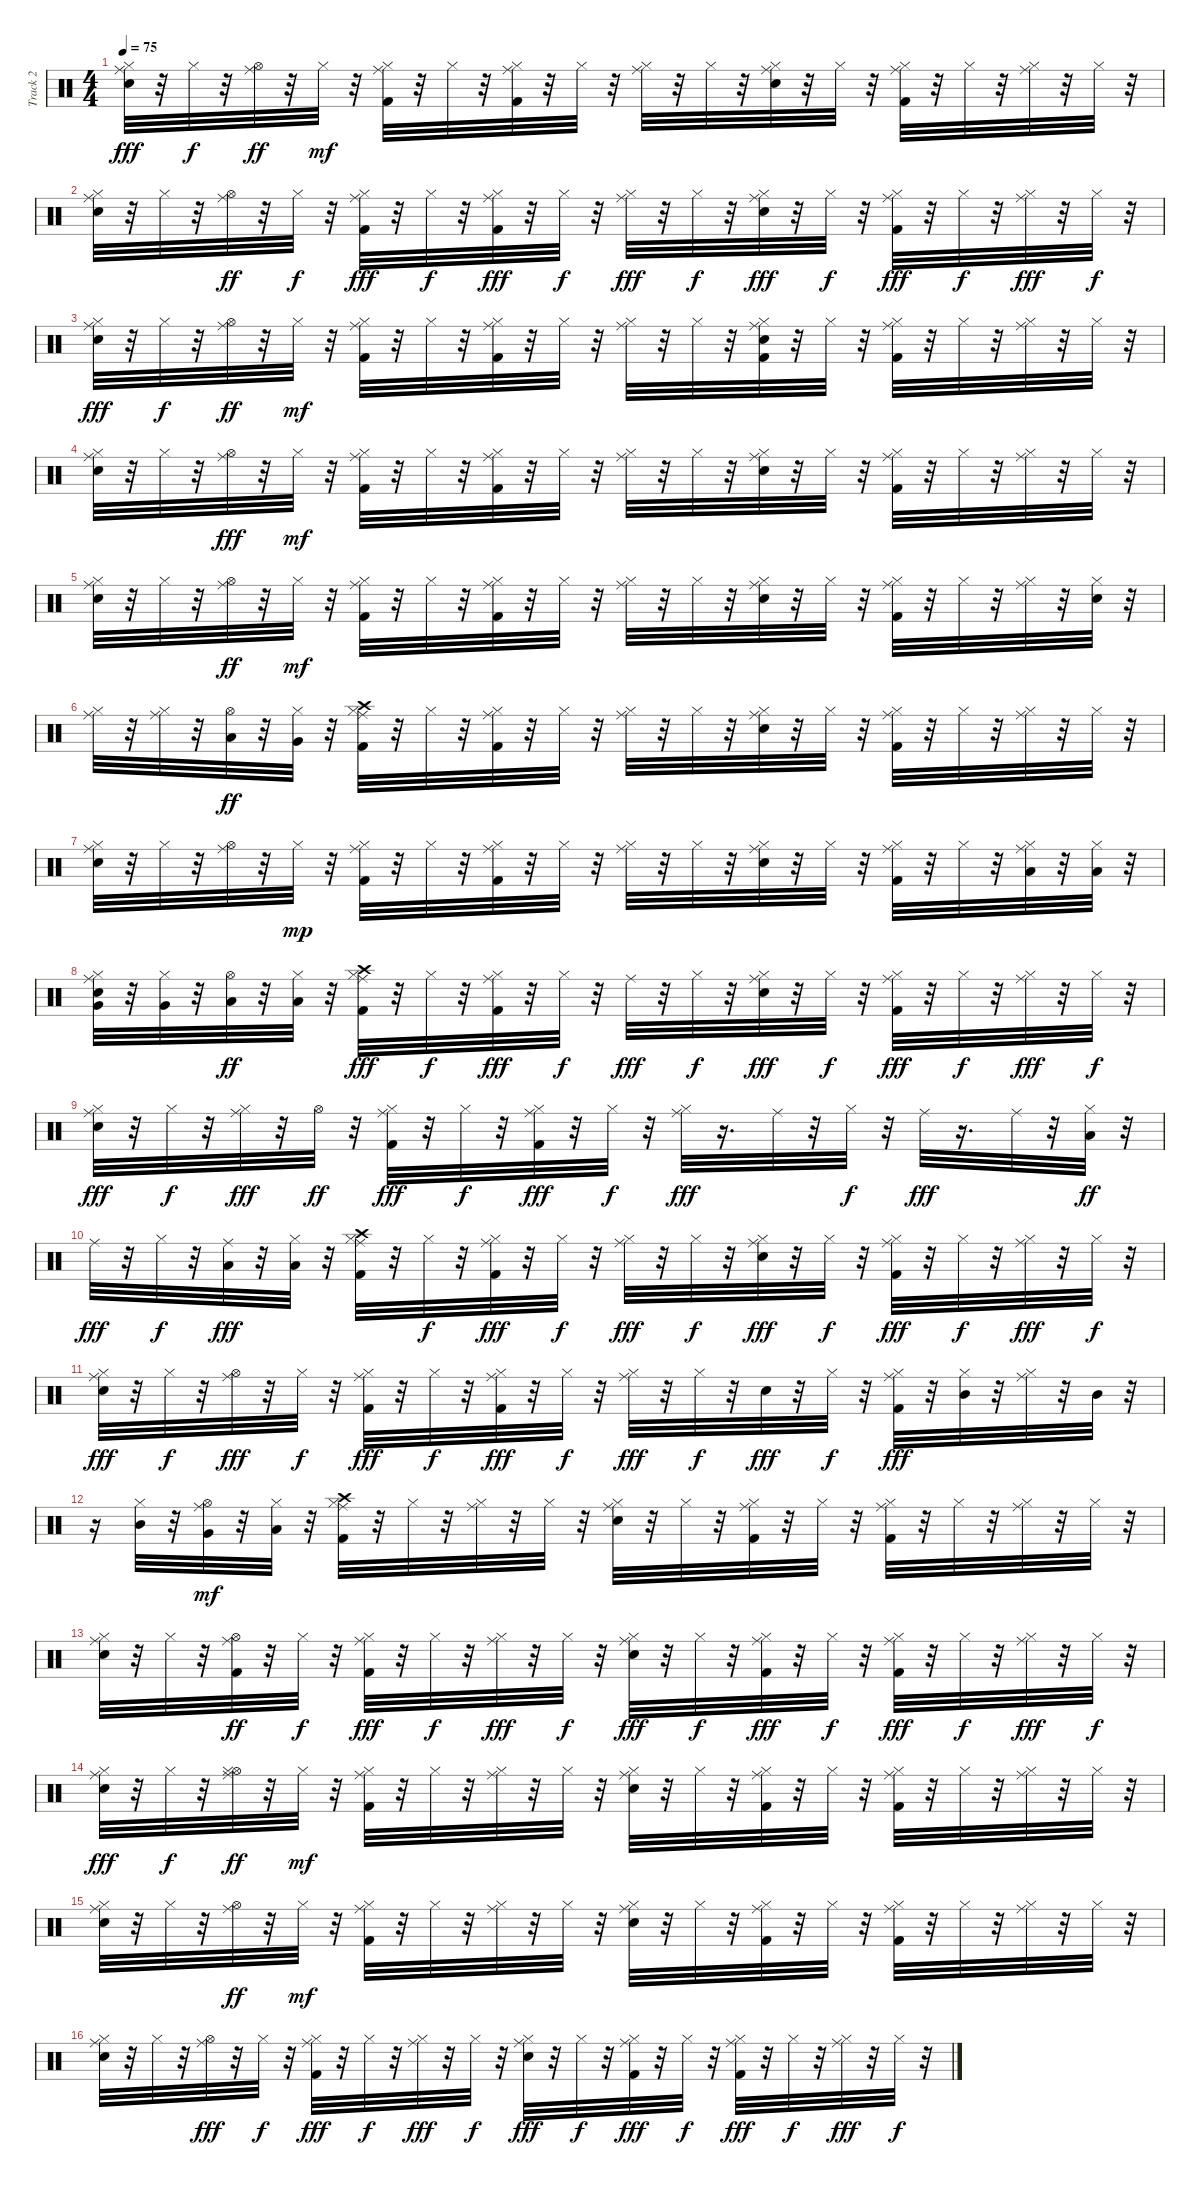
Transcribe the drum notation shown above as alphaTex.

\track ("Track 2" "Track 2") {instrument percussion}
\staff {score}
\articulation defaults
\ts (4 4)
\tempo 75
\clef neutral
\ks c
("Snare (hit) 2" "Ride (middle)" "Hi-Hat (closed)").32{dy fff} r.32 "Hi-Hat (closed)".32{dy f} r.32 ("Ride (middle)" "Hi-Hat (open)").32{dy ff} r.32 "Hi-Hat (closed)".32{dy mf} r.32 ("Kick (hit) 2" "Ride (middle)" "Hi-Hat (closed)").32 r.32 "Hi-Hat (closed)".32 r.32 ("Kick (hit) 2" "Ride (middle)" "Hi-Hat (closed)").32 r.32 "Hi-Hat (closed)".32 r.32 ("Ride (middle)" "Hi-Hat (closed)").32 r.32 "Hi-Hat (closed)".32 r.32 ("Snare (hit) 2" "Ride (middle)" "Hi-Hat (closed)").32 r.32 "Hi-Hat (closed)".32 r.32 ("Kick (hit) 2" "Ride (middle)" "Hi-Hat (closed)").32 r.32 "Hi-Hat (closed)".32 r.32 ("Ride (middle)" "Hi-Hat (closed)").32 r.32 "Hi-Hat (closed)".32 r.32 |
("Ride (middle)" "Snare (hit) 2" "Hi-Hat (closed)").32 r.32 "Hi-Hat (closed)".32 r.32 ("Ride (middle)" "Hi-Hat (open)").32{dy ff} r.32 "Hi-Hat (closed)".32{dy f} r.32 ("Kick (hit) 2" "Ride (middle)" "Hi-Hat (closed)").32{dy fff} r.32 "Hi-Hat (closed)".32{dy f} r.32 ("Kick (hit) 2" "Ride (middle)" "Hi-Hat (closed)").32{dy fff} r.32 "Hi-Hat (closed)".32{dy f} r.32 ("Ride (middle)" "Hi-Hat (closed)").32{dy fff} r.32 "Hi-Hat (closed)".32{dy f} r.32 ("Ride (middle)" "Snare (hit) 2" "Hi-Hat (closed)").32{dy fff} r.32 "Hi-Hat (closed)".32{dy f} r.32 ("Ride (middle)" "Kick (hit) 2" "Hi-Hat (closed)").32{dy fff} r.32 "Hi-Hat (closed)".32{dy f} r.32 ("Ride (middle)" "Hi-Hat (closed)").32{dy fff} r.32 "Hi-Hat (closed)".32{dy f} r.32 |
("Snare (hit) 2" "Ride (middle)" "Hi-Hat (closed)").32{dy fff} r.32 "Hi-Hat (closed)".32{dy f} r.32 ("Ride (middle)" "Hi-Hat (open)").32{dy ff} r.32 "Hi-Hat (closed)".32{dy mf} r.32 ("Ride (middle)" "Kick (hit) 2" "Hi-Hat (closed)").32 r.32 "Hi-Hat (closed)".32 r.32 ("Kick (hit) 2" "Ride (middle)" "Hi-Hat (closed)").32 r.32 "Hi-Hat (closed)".32 r.32 ("Ride (middle)" "Hi-Hat (closed)").32 r.32 "Hi-Hat (closed)".32 r.32 ("Snare (hit) 2" "Kick (hit) 2" "Ride (middle)" "Hi-Hat (closed)").32 r.32 "Hi-Hat (closed)".32 r.32 ("Kick (hit) 2" "Ride (middle)" "Hi-Hat (closed)").32 r.32 "Hi-Hat (closed)".32 r.32 ("Ride (middle)" "Hi-Hat (closed)").32 r.32 "Hi-Hat (closed)".32 r.32 |
("Snare (hit) 2" "Ride (middle)" "Hi-Hat (closed)").32 r.32 "Hi-Hat (closed)".32 r.32 ("Ride (middle)" "Hi-Hat (open)").32{dy fff} r.32 "Hi-Hat (closed)".32{dy mf} r.32 ("Kick (hit) 2" "Ride (middle)" "Hi-Hat (closed)").32 r.32 "Hi-Hat (closed)".32 r.32 ("Kick (hit) 2" "Ride (middle)" "Hi-Hat (closed)").32 r.32 "Hi-Hat (closed)".32 r.32 ("Ride (middle)" "Hi-Hat (closed)").32 r.32 "Hi-Hat (closed)".32 r.32 ("Snare (hit) 2" "Ride (middle)" "Hi-Hat (closed)").32 r.32 "Hi-Hat (closed)".32 r.32 ("Kick (hit) 2" "Ride (middle)" "Hi-Hat (closed)").32 r.32 "Hi-Hat (closed)".32 r.32 ("Ride (middle)" "Hi-Hat (closed)").32 r.32 "Hi-Hat (closed)".32 r.32 |
("Snare (hit) 2" "Ride (middle)" "Hi-Hat (closed)").32 r.32 "Hi-Hat (closed)".32 r.32 ("Ride (middle)" "Hi-Hat (open)").32{dy ff} r.32 "Hi-Hat (closed)".32{dy mf} r.32 ("Kick (hit) 2" "Ride (middle)" "Hi-Hat (closed)").32 r.32 "Hi-Hat (closed)".32 r.32 ("Kick (hit) 2" "Ride (middle)" "Hi-Hat (closed)").32 r.32 "Hi-Hat (closed)".32 r.32 ("Ride (middle)" "Hi-Hat (closed)").32 r.32 "Hi-Hat (closed)".32 r.32 ("Snare (hit) 2" "Ride (middle)" "Hi-Hat (closed)").32 r.32 "Hi-Hat (closed)".32 r.32 ("Kick (hit) 2" "Ride (middle)" "Hi-Hat (closed)").32 r.32 "Hi-Hat (closed)".32 r.32 ("Ride (middle)" "Hi-Hat (closed)").32 r.32 ("Snare (hit) 2" "Hi-Hat (closed)").32 r.32 |
("Ride (middle)" "Hi-Hat (closed)").32 r.32 ("Ride (middle)" "Hi-Hat (closed)").32 r.32 ("Low Tom (hit)" "Hi-Hat (open)").32{dy ff} r.32 ("Very Low Tom (hit)" "Hi-Hat (closed)").32 r.32 ("Ride (middle)" "Kick (hit) 2" "Crash high (hit)" "Hi-Hat (closed)").32 r.32 "Hi-Hat (closed)".32 r.32 ("Ride (middle)" "Kick (hit) 2" "Hi-Hat (closed)").32 r.32 "Hi-Hat (closed)".32 r.32 ("Ride (middle)" "Hi-Hat (closed)").32 r.32 "Hi-Hat (closed)".32 r.32 ("Snare (hit) 2" "Ride (middle)" "Hi-Hat (closed)").32 r.32 "Hi-Hat (closed)".32 r.32 ("Kick (hit) 2" "Ride (middle)" "Hi-Hat (closed)").32 r.32 "Hi-Hat (closed)".32 r.32 ("Ride (middle)" "Hi-Hat (closed)").32 r.32 "Hi-Hat (closed)".32 r.32 |
("Snare (hit) 2" "Ride (middle)" "Hi-Hat (closed)").32 r.32 "Hi-Hat (closed)".32 r.32 ("Ride (middle)" "Hi-Hat (open)").32 r.32 "Hi-Hat (closed)".32{dy mp} r.32 ("Ride (middle)" "Kick (hit) 2" "Hi-Hat (closed)").32 r.32 "Hi-Hat (closed)".32 r.32 ("Ride (middle)" "Kick (hit) 2" "Hi-Hat (closed)").32 r.32 "Hi-Hat (closed)".32 r.32 ("Ride (middle)" "Hi-Hat (closed)").32 r.32 "Hi-Hat (closed)".32 r.32 ("Snare (hit) 2" "Ride (middle)" "Hi-Hat (closed)").32 r.32 "Hi-Hat (closed)".32 r.32 ("Kick (hit) 2" "Ride (middle)" "Hi-Hat (closed)").32 r.32 "Hi-Hat (closed)".32 r.32 ("Ride (middle)" "Low Tom (hit)" "Hi-Hat (closed)").32 r.32 ("Low Tom (hit)" "Hi-Hat (closed)").32 r.32 |
("Snare (hit) 2" "Ride (middle)" "Very Low Tom (hit)" "Hi-Hat (closed)").32 r.32 ("Very Low Tom (hit)" "Hi-Hat (closed)").32 r.32 ("Low Floor Tom (hit)" "Hi-Hat (open)").32{dy ff} r.32 ("Low Floor Tom (hit)" "Hi-Hat (closed)").32 r.32 ("Kick (hit) 2" "Ride (middle)" "Crash high (hit)" "Hi-Hat (closed)").32{dy fff} r.32 "Hi-Hat (closed)".32{dy f} r.32 ("Kick (hit) 2" "Ride (middle)" "Hi-Hat (closed)").32{dy fff} r.32 "Hi-Hat (closed)".32{dy f} r.32 "Ride (middle)".32{dy fff} r.32 "Hi-Hat (closed)".32{dy f} r.32 ("Ride (middle)" "Snare (hit) 2" "Hi-Hat (closed)").32{dy fff} r.32 "Hi-Hat (closed)".32{dy f} r.32 ("Ride (middle)" "Kick (hit) 2" "Hi-Hat (closed)").32{dy fff} r.32 "Hi-Hat (closed)".32{dy f} r.32 ("Ride (middle)" "Hi-Hat (closed)").32{dy fff} r.32 "Hi-Hat (closed)".32{dy f} r.32 |
("Ride (middle)" "Snare (hit) 2" "Hi-Hat (closed)").32{dy fff} r.32 "Hi-Hat (closed)".32{dy f} r.32 ("Ride (middle)" "Hi-Hat (closed)").32{dy fff} r.32 "Hi-Hat (open)".32{dy ff} r.32 ("Kick (hit) 2" "Ride (middle)" "Hi-Hat (closed)").32{dy fff} r.32 "Hi-Hat (closed)".32{dy f} r.32 ("Kick (hit) 2" "Ride (middle)" "Hi-Hat (closed)").32{dy fff} r.32 "Hi-Hat (closed)".32{dy f} r.32 ("Ride (middle)" "Hi-Hat (closed)").32{dy fff} r.16{d} "Ride (middle)".32 r.32 "Hi-Hat (closed)".32{dy f} r.32 "Ride (middle)".32{dy fff} r.16{d} "Ride (middle)".32 r.32 ("Low Tom (hit)" "Hi-Hat (closed)").32{dy ff} r.32 |
"Ride (middle)".32{dy fff} r.32 "Hi-Hat (closed)".32{dy f} r.32 ("Ride (middle)" "Low Floor Tom (hit)").32{dy fff} r.32 ("Low Floor Tom (hit)" "Hi-Hat (closed)").32 r.32 ("Kick (hit) 2" "Ride (middle)" "Crash high (hit)" "Hi-Hat (closed)").32 r.32 "Hi-Hat (closed)".32{dy f} r.32 ("Kick (hit) 2" "Ride (middle)" "Hi-Hat (closed)").32{dy fff} r.32 "Hi-Hat (closed)".32{dy f} r.32 ("Ride (middle)" "Hi-Hat (closed)").32{dy fff} r.32 "Hi-Hat (closed)".32{dy f} r.32 ("Ride (middle)" "Snare (hit) 2" "Hi-Hat (closed)").32{dy fff} r.32 "Hi-Hat (closed)".32{dy f} r.32 ("Ride (middle)" "Kick (hit) 2" "Hi-Hat (closed)").32{dy fff} r.32 "Hi-Hat (closed)".32{dy f} r.32 ("Ride (middle)" "Hi-Hat (closed)").32{dy fff} r.32 "Hi-Hat (closed)".32{dy f} r.32 |
("Snare (hit) 2" "Ride (middle)" "Hi-Hat (closed)").32{dy fff} r.32 "Hi-Hat (closed)".32{dy f} r.32 ("Ride (middle)" "Hi-Hat (open)").32{dy fff} r.32 "Hi-Hat (closed)".32{dy f} r.32 ("Kick (hit) 2" "Ride (middle)" "Hi-Hat (closed)").32{dy fff} r.32 "Hi-Hat (closed)".32{dy f} r.32 ("Ride (middle)" "Kick (hit) 2" "Hi-Hat (closed)").32{dy fff} r.32 "Hi-Hat (closed)".32{dy f} r.32 ("Ride (middle)" "Hi-Hat (closed)").32{dy fff} r.32 "Hi-Hat (closed)".32{dy f} r.32 "Snare (hit) 2".32{dy fff} r.32 "Hi-Hat (closed)".32{dy f} r.32 ("Ride (middle)" "Kick (hit) 2" "Hi-Hat (closed)").32{dy fff} r.32 ("Mid Tom (hit)" "Hi-Hat (closed)").32 r.32 ("Ride (middle)" "Hi-Hat (closed)").32 r.32 "Mid Tom (hit)".32 r.32 |
r.16 ("Mid Tom (hit)" "Hi-Hat (closed)").32 r.32 ("Ride (middle)" "Very Low Tom (hit)" "Hi-Hat (open)").32{dy mf} r.32 ("Low Floor Tom (hit)" "Hi-Hat (closed)").32 r.32 ("Kick (hit) 2" "Ride (middle)" "Crash high (hit)" "Hi-Hat (closed)").32 r.32 "Hi-Hat (closed)".32 r.32 ("Ride (middle)" "Hi-Hat (closed)").32 r.32 "Hi-Hat (closed)".32 r.32 ("Snare (hit) 2" "Ride (middle)" "Hi-Hat (closed)").32 r.32 "Hi-Hat (closed)".32 r.32 ("Ride (middle)" "Kick (hit) 2" "Hi-Hat (closed)").32 r.32 "Hi-Hat (closed)".32 r.32 ("Kick (hit) 2" "Ride (middle)" "Hi-Hat (closed)").32 r.32 "Hi-Hat (closed)".32 r.32 ("Ride (middle)" "Hi-Hat (closed)").32 r.32 "Hi-Hat (closed)".32 r.32 |
("Snare (hit) 2" "Ride (middle)" "Hi-Hat (closed)").32 r.32 "Hi-Hat (closed)".32 r.32 ("Kick (hit) 2" "Ride (middle)" "Hi-Hat (open)").32{dy ff} r.32 "Hi-Hat (closed)".32{dy f} r.32 ("Kick (hit) 2" "Ride (middle)" "Hi-Hat (closed)").32{dy fff} r.32 "Hi-Hat (closed)".32{dy f} r.32 ("Ride (middle)" "Hi-Hat (closed)").32{dy fff} r.32 "Hi-Hat (closed)".32{dy f} r.32 ("Snare (hit) 2" "Ride (middle)" "Hi-Hat (closed)").32{dy fff} r.32 "Hi-Hat (closed)".32{dy f} r.32 ("Kick (hit) 2" "Ride (middle)" "Hi-Hat (closed)").32{dy fff} r.32 "Hi-Hat (closed)".32{dy f} r.32 ("Kick (hit) 2" "Ride (middle)" "Hi-Hat (closed)").32{dy fff} r.32 "Hi-Hat (closed)".32{dy f} r.32 ("Ride (middle)" "Hi-Hat (closed)").32{dy fff} r.32 "Hi-Hat (closed)".32{dy f} r.32 |
("Ride (middle)" "Snare (hit) 2" "Hi-Hat (closed)").32{dy fff} r.32 "Hi-Hat (closed)".32{dy f} r.32 ("Ride (middle)" "Hi-Hat (open)" "Hi-Hat (closed)").32{dy ff} r.32 "Hi-Hat (closed)".32{dy mf} r.32 ("Ride (middle)" "Kick (hit) 2" "Hi-Hat (closed)").32 r.32 "Hi-Hat (closed)".32 r.32 ("Ride (middle)" "Hi-Hat (closed)").32 r.32 "Hi-Hat (closed)".32 r.32 ("Snare (hit) 2" "Ride (middle)" "Hi-Hat (closed)").32 r.32 "Hi-Hat (closed)".32 r.32 ("Kick (hit) 2" "Ride (middle)" "Hi-Hat (closed)").32 r.32 "Hi-Hat (closed)".32 r.32 ("Kick (hit) 2" "Ride (middle)" "Hi-Hat (closed)").32 r.32 "Hi-Hat (closed)".32 r.32 ("Ride (middle)" "Hi-Hat (closed)").32 r.32 "Hi-Hat (closed)".32 r.32 |
("Snare (hit) 2" "Ride (middle)" "Hi-Hat (closed)").32 r.32 "Hi-Hat (closed)".32 r.32 ("Ride (middle)" "Hi-Hat (open)").32{dy ff} r.32 "Hi-Hat (closed)".32{dy mf} r.32 ("Ride (middle)" "Kick (hit) 2" "Hi-Hat (closed)").32 r.32 "Hi-Hat (closed)".32 r.32 ("Ride (middle)" "Hi-Hat (closed)").32 r.32 "Hi-Hat (closed)".32 r.32 ("Ride (middle)" "Snare (hit) 2" "Hi-Hat (closed)").32 r.32 "Hi-Hat (closed)".32 r.32 ("Ride (middle)" "Kick (hit) 2" "Hi-Hat (closed)").32 r.32 "Hi-Hat (closed)".32 r.32 ("Kick (hit) 2" "Ride (middle)" "Hi-Hat (closed)").32 r.32 "Hi-Hat (closed)".32 r.32 ("Ride (middle)" "Hi-Hat (closed)").32 r.32 "Hi-Hat (closed)".32 r.32 |
("Snare (hit) 2" "Ride (middle)" "Hi-Hat (closed)").32 r.32 "Hi-Hat (closed)".32 r.32 ("Ride (middle)" "Hi-Hat (open)").32{dy fff} r.32 "Hi-Hat (closed)".32{dy f} r.32 ("Kick (hit) 2" "Ride (middle)" "Hi-Hat (closed)").32{dy fff} r.32 "Hi-Hat (closed)".32{dy f} r.32 ("Ride (middle)" "Hi-Hat (closed)").32{dy fff} r.32 "Hi-Hat (closed)".32{dy f} r.32 ("Snare (hit) 2" "Ride (middle)" "Hi-Hat (closed)").32{dy fff} r.32 "Hi-Hat (closed)".32{dy f} r.32 ("Ride (middle)" "Kick (hit) 2" "Hi-Hat (closed)").32{dy fff} r.32 "Hi-Hat (closed)".32{dy f} r.32 ("Ride (middle)" "Kick (hit) 2" "Hi-Hat (closed)").32{dy fff} r.32 "Hi-Hat (closed)".32{dy f} r.32 ("Ride (middle)" "Hi-Hat (closed)").32{dy fff} r.32 "Hi-Hat (closed)".32{dy f} r.32
